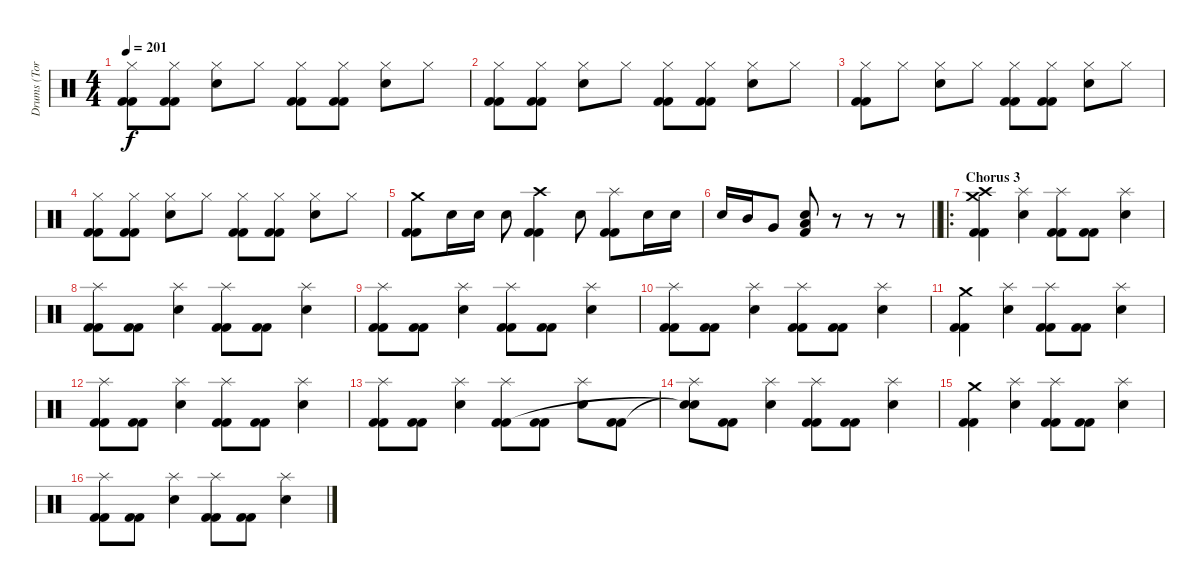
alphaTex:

\track ("Drums (Tora)" "Drums (Tor") {instrument percussion}
\staff {score}
\articulation defaults
\ts (4 4)
\tempo 201
\clef neutral
\ks c
("Kick (hit) 2" "Kick (hit) 2" "Hi-Hat (closed)").8{dy f} ("Kick (hit) 2" "Kick (hit) 2" "Hi-Hat (closed)").8 ("Snare (hit) 2" "Hi-Hat (closed)").8 "Hi-Hat (closed)".8 ("Kick (hit) 2" "Kick (hit) 2" "Hi-Hat (closed)").8 ("Kick (hit) 2" "Kick (hit) 2" "Hi-Hat (closed)").8 ("Snare (hit) 2" "Hi-Hat (closed)").8 "Hi-Hat (closed)".8 |
("Kick (hit) 2" "Kick (hit) 2" "Hi-Hat (closed)").8 ("Kick (hit) 2" "Kick (hit) 2" "Hi-Hat (closed)").8 ("Snare (hit) 2" "Hi-Hat (closed)").8 "Hi-Hat (closed)".8 ("Kick (hit) 2" "Kick (hit) 2" "Hi-Hat (closed)").8 ("Kick (hit) 2" "Kick (hit) 2" "Hi-Hat (closed)").8 ("Snare (hit) 2" "Hi-Hat (closed)").8 "Hi-Hat (closed)".8 |
("Kick (hit) 2" "Kick (hit) 2" "Hi-Hat (closed)").8 "Hi-Hat (closed)".8 ("Snare (hit) 2" "Hi-Hat (closed)").8 "Hi-Hat (closed)".8 ("Kick (hit) 2" "Kick (hit) 2" "Hi-Hat (closed)").8 ("Kick (hit) 2" "Kick (hit) 2" "Hi-Hat (closed)").8 ("Snare (hit) 2" "Hi-Hat (closed)").8 "Hi-Hat (closed)".8 |
("Kick (hit) 2" "Kick (hit) 2" "Hi-Hat (closed)").8 ("Kick (hit) 2" "Kick (hit) 2" "Hi-Hat (closed)").8 ("Snare (hit) 2" "Hi-Hat (closed)").8 "Hi-Hat (closed)".8 ("Kick (hit) 2" "Kick (hit) 2" "Hi-Hat (closed)").8 ("Kick (hit) 2" "Kick (hit) 2" "Hi-Hat (closed)").8 ("Snare (hit) 2" "Hi-Hat (closed)").8 "Hi-Hat (closed)".8 |
("Crash medium (hit)" "Kick (hit) 2" "Kick (hit) 2").8 "Snare (hit) 2".16 "Snare (hit) 2".16 "Snare (hit) 2".8 ("Crash high (hit)" "Kick (hit) 2" "Kick (hit) 2").4 "Snare (hit) 2".8 ("Splash (hit)" "Kick (hit) 2" "Kick (hit) 2").8 "Snare (hit) 2".16 "Snare (hit) 2".16 |
\barLineRight lightlight "Snare (hit) 2".16 "Mid Tom (hit)".16 "Very Low Tom (hit)".8
("Low Floor Tom (hit)" "Kick (hit) 2" "Snare (hit) 2").8 r.8 r.8 r.8 |
\ro
\section ("" "Chorus 3")
("Crash high (hit)" "Crash medium (hit)" "Kick (hit) 2" "Kick (hit) 2").4 ("Splash (hit)" "Snare (hit) 2").4 ("Splash (hit)" "Kick (hit) 2" "Kick (hit) 2").8 ("Kick (hit) 2" "Kick (hit) 2").8 ("Splash (hit)" "Snare (hit) 2").4 |
("Splash (hit)" "Kick (hit) 2" "Kick (hit) 2").8 ("Kick (hit) 2" "Kick (hit) 2").8 ("Splash (hit)" "Snare (hit) 2").4 ("Splash (hit)" "Kick (hit) 2" "Kick (hit) 2").8 ("Kick (hit) 2" "Kick (hit) 2").8 ("Splash (hit)" "Snare (hit) 2").4 |
("Splash (hit)" "Kick (hit) 2" "Kick (hit) 2").8 ("Kick (hit) 2" "Kick (hit) 2").8 ("Splash (hit)" "Snare (hit) 2").4 ("Splash (hit)" "Kick (hit) 2" "Kick (hit) 2").8 ("Kick (hit) 2" "Kick (hit) 2").8 ("Splash (hit)" "Snare (hit) 2").4 |
("Splash (hit)" "Kick (hit) 2" "Kick (hit) 2").8 ("Kick (hit) 2" "Kick (hit) 2").8 ("Splash (hit)" "Snare (hit) 2").4 ("Splash (hit)" "Kick (hit) 2" "Kick (hit) 2").8 ("Kick (hit) 2" "Kick (hit) 2").8 ("Splash (hit)" "Snare (hit) 2").4 |
("Crash medium (hit)" "Kick (hit) 2" "Kick (hit) 2").4 ("Splash (hit)" "Snare (hit) 2").4 ("Splash (hit)" "Kick (hit) 2" "Kick (hit) 2").8 ("Kick (hit) 2" "Kick (hit) 2").8 ("Splash (hit)" "Snare (hit) 2").4 |
("Splash (hit)" "Kick (hit) 2" "Kick (hit) 2").8 ("Kick (hit) 2" "Kick (hit) 2").8 ("Splash (hit)" "Snare (hit) 2").4 ("Splash (hit)" "Kick (hit) 2" "Kick (hit) 2").8 ("Kick (hit) 2" "Kick (hit) 2").8 ("Splash (hit)" "Snare (hit) 2").4 |
("Splash (hit)" "Kick (hit) 2" "Kick (hit) 2").8 ("Kick (hit) 2" "Kick (hit) 2").8 ("Splash (hit)" "Snare (hit) 2").4 ("Splash (hit)" "Kick (hit) 2" "Kick (hit) 2").8 ("Kick (hit) 2" "Kick (hit) 2").8 ("Splash (hit)" "Snare (hit) 2").8 ("Kick (hit) 2" "Kick (hit) 2").8 |
("Splash (hit)" "Snare (hit)"{t} "Snare (hit)"{t}).8 ("Kick (hit) 2" "Kick (hit) 2").8 ("Splash (hit)" "Snare (hit) 2").4 ("Splash (hit)" "Kick (hit) 2" "Kick (hit) 2").8 ("Kick (hit) 2" "Kick (hit) 2").8 ("Splash (hit)" "Snare (hit) 2").4 |
("Crash medium (hit)" "Kick (hit) 2" "Kick (hit) 2").4 ("Splash (hit)" "Snare (hit) 2").4 ("Splash (hit)" "Kick (hit) 2" "Kick (hit) 2").8 ("Kick (hit) 2" "Kick (hit) 2").8 ("Splash (hit)" "Snare (hit) 2").4 |
("Splash (hit)" "Kick (hit) 2" "Kick (hit) 2").8 ("Kick (hit) 2" "Kick (hit) 2").8 ("Splash (hit)" "Snare (hit) 2").4 ("Splash (hit)" "Kick (hit) 2" "Kick (hit) 2").8 ("Kick (hit) 2" "Kick (hit) 2").8 ("Splash (hit)" "Snare (hit) 2").4
